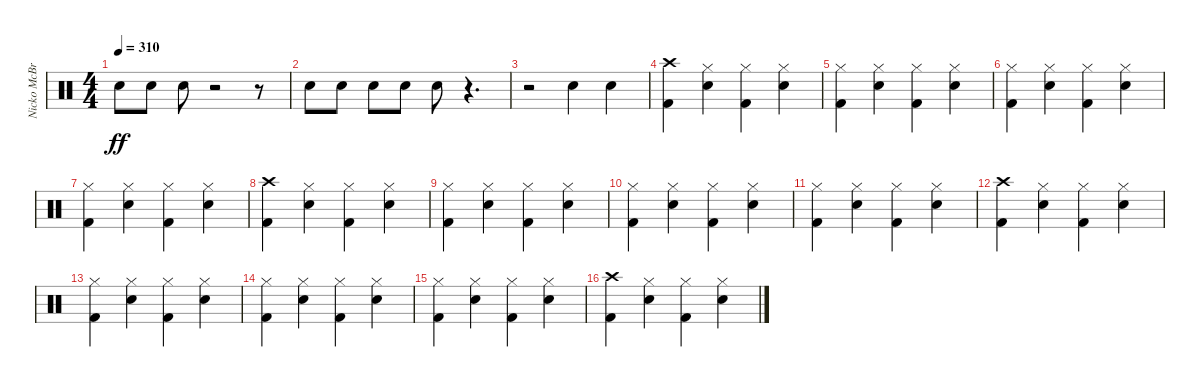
\track ("Nicko McBrain" "Nicko McBr") {instrument percussion}
\staff {score}
\articulation defaults
\ts (4 4)
\tempo 310
\clef neutral
\ks c "Snare (hit) 2".8{dy ff} "Snare (hit) 2".8 "Snare (hit) 2".8
r.2 r.8 |
"Snare (hit) 2".8 "Snare (hit) 2".8 "Snare (hit) 2".8 "Snare (hit) 2".8 "Snare (hit) 2".8 r.4{d} |
r.2 "Snare (hit) 2".4 "Snare (hit) 2".4 |
("Kick (hit) 2" "Crash high (hit)").4 ("Snare (hit) 2" "Hi-Hat (closed)").4 ("Kick (hit) 2" "Hi-Hat (closed)").4 ("Snare (hit) 2" "Hi-Hat (closed)").4 |
("Kick (hit) 2" "Hi-Hat (closed)").4 ("Snare (hit) 2" "Hi-Hat (closed)").4 ("Kick (hit) 2" "Hi-Hat (closed)").4 ("Snare (hit) 2" "Hi-Hat (closed)").4 |
("Kick (hit) 2" "Hi-Hat (closed)").4 ("Snare (hit) 2" "Hi-Hat (closed)").4 ("Kick (hit) 2" "Hi-Hat (closed)").4 ("Snare (hit) 2" "Hi-Hat (closed)").4 |
("Kick (hit) 2" "Hi-Hat (closed)").4 ("Snare (hit) 2" "Hi-Hat (closed)").4 ("Kick (hit) 2" "Hi-Hat (closed)").4 ("Snare (hit) 2" "Hi-Hat (closed)").4 |
("Kick (hit) 2" "Crash high (hit)").4 ("Snare (hit) 2" "Hi-Hat (closed)").4 ("Kick (hit) 2" "Hi-Hat (closed)").4 ("Snare (hit) 2" "Hi-Hat (closed)").4 |
("Kick (hit) 2" "Hi-Hat (closed)").4 ("Snare (hit) 2" "Hi-Hat (closed)").4 ("Kick (hit) 2" "Hi-Hat (closed)").4 ("Snare (hit) 2" "Hi-Hat (closed)").4 |
("Kick (hit) 2" "Hi-Hat (closed)").4 ("Snare (hit) 2" "Hi-Hat (closed)").4 ("Kick (hit) 2" "Hi-Hat (closed)").4 ("Snare (hit) 2" "Hi-Hat (closed)").4 |
("Kick (hit) 2" "Hi-Hat (closed)").4 ("Snare (hit) 2" "Hi-Hat (closed)").4 ("Kick (hit) 2" "Hi-Hat (closed)").4 ("Snare (hit) 2" "Hi-Hat (closed)").4 |
("Kick (hit) 2" "Crash high (hit)").4 ("Snare (hit) 2" "Hi-Hat (closed)").4 ("Kick (hit) 2" "Hi-Hat (closed)").4 ("Snare (hit) 2" "Hi-Hat (closed)").4 |
("Kick (hit) 2" "Hi-Hat (closed)").4 ("Snare (hit) 2" "Hi-Hat (closed)").4 ("Kick (hit) 2" "Hi-Hat (closed)").4 ("Snare (hit) 2" "Hi-Hat (closed)").4 |
("Kick (hit) 2" "Hi-Hat (closed)").4 ("Snare (hit) 2" "Hi-Hat (closed)").4 ("Kick (hit) 2" "Hi-Hat (closed)").4 ("Snare (hit) 2" "Hi-Hat (closed)").4 |
("Kick (hit) 2" "Hi-Hat (closed)").4 ("Snare (hit) 2" "Hi-Hat (closed)").4 ("Kick (hit) 2" "Hi-Hat (closed)").4 ("Snare (hit) 2" "Hi-Hat (closed)").4 |
("Kick (hit) 2" "Crash high (hit)").4 ("Snare (hit) 2" "Hi-Hat (closed)").4 ("Kick (hit) 2" "Hi-Hat (closed)").4 ("Snare (hit) 2" "Hi-Hat (closed)").4
